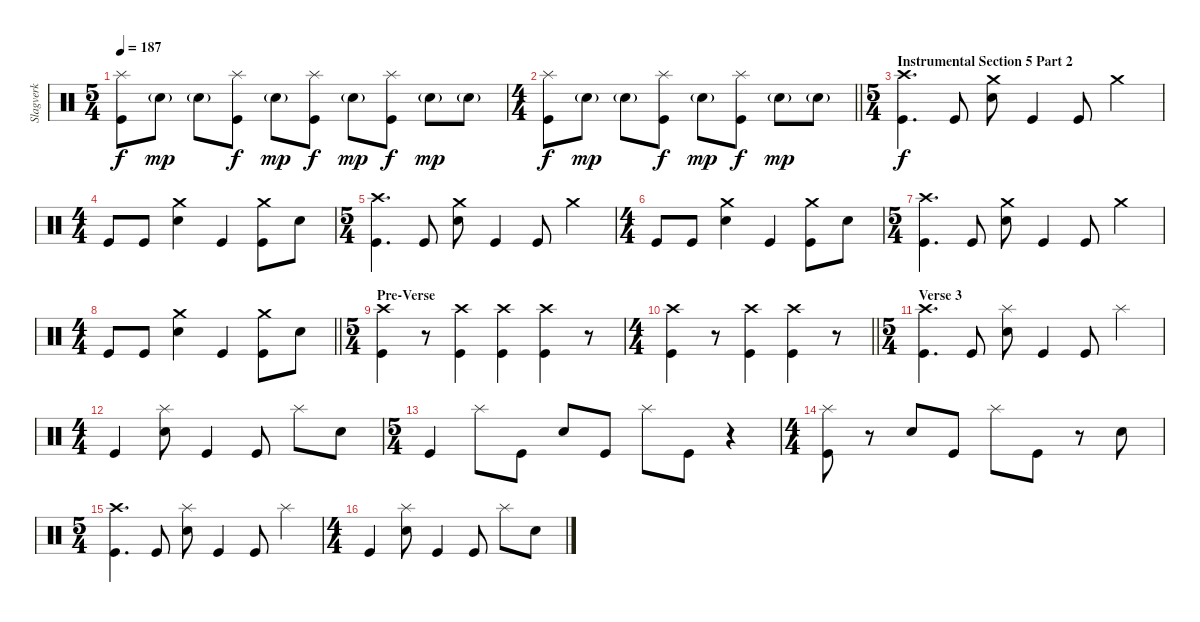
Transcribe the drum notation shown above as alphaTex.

\track ("Slagverk" "Slagverk") {instrument percussion}
\staff {score}
\articulation defaults
\ts (5 4)
\tempo 187
\clef neutral
\ks c
("Splash (hit)" "Kick (hit)").8{dy f} "Electric Snare (hit)"{g}.8{dy mp} "Electric Snare (hit)"{g}.8 ("Splash (hit)" "Kick (hit)").8{dy f} "Electric Snare (hit)"{g}.8{dy mp} ("Splash (hit)" "Kick (hit)").8{dy f} "Electric Snare (hit)"{g}.8{dy mp} ("Splash (hit)" "Kick (hit)").8{dy f} "Electric Snare (hit)"{g}.8{dy mp} "Electric Snare (hit)"{g}.8 |
\ts (4 4)
\barLineRight lightlight
("Splash (hit)" "Kick (hit)").8{dy f} "Electric Snare (hit)"{g}.8{dy mp} "Electric Snare (hit)"{g}.8 ("Splash (hit)" "Kick (hit)").8{dy f} "Electric Snare (hit)"{g}.8{dy mp} ("Splash (hit)" "Kick (hit)").8{dy f} "Electric Snare (hit)"{g}.8{dy mp} "Electric Snare (hit)"{g}.8 |
\ts (5 4)
\section ("" "Instrumental Section 5 Part 2")
("Crash high (hit)" "Kick (hit)").4{d dy f} "Kick (hit)".8 ("Crash medium (hit)" "Electric Snare (hit)").8 "Kick (hit)".4 "Kick (hit)".8 "Crash medium (hit)".4 |
\ts (4 4)
"Kick (hit)".8 "Kick (hit)".8 ("Crash medium (hit)" "Electric Snare (hit)").4 "Kick (hit)".4 ("Crash medium (hit)" "Kick (hit)").8 "Electric Snare (hit)".8 |
\ts (5 4)
("Crash high (hit)" "Kick (hit)").4{d} "Kick (hit)".8 ("Crash medium (hit)" "Electric Snare (hit)").8 "Kick (hit)".4 "Kick (hit)".8 "Crash medium (hit)".4 |
\ts (4 4)
"Kick (hit)".8 "Kick (hit)".8 ("Crash medium (hit)" "Electric Snare (hit)").4 "Kick (hit)".4 ("Crash medium (hit)" "Kick (hit)").8 "Electric Snare (hit)".8 |
\ts (5 4)
("Crash high (hit)" "Kick (hit)").4{d} "Kick (hit)".8 ("Crash medium (hit)" "Electric Snare (hit)").8 "Kick (hit)".4 "Kick (hit)".8 "Crash medium (hit)".4 |
\ts (4 4)
\barLineRight lightlight "Kick (hit)".8 "Kick (hit)".8
("Crash medium (hit)" "Electric Snare (hit)").4 "Kick (hit)".4 ("Crash medium (hit)" "Kick (hit)").8 "Electric Snare (hit)".8 |
\ts (5 4)
\section ("" "Pre-Verse")
("Crash high (hit)" "Kick (hit)").4 r.8 ("Crash high (hit)" "Kick (hit)").4 ("Crash high (hit)" "Kick (hit)").4 ("Crash high (hit)" "Kick (hit)").4 r.8 |
\ts (4 4)
\barLineRight lightlight
("Crash high (hit)" "Kick (hit)").4 r.8 ("Crash high (hit)" "Kick (hit)").4 ("Crash high (hit)" "Kick (hit)").4 r.8 |
\ts (5 4)
\section ("" "Verse 3")
("Crash high (hit)" "Kick (hit)").4{d} "Kick (hit)".8 ("Splash (hit)" "Electric Snare (hit)").8 "Kick (hit)".4 "Kick (hit)".8 "Splash (hit)".4 |
\ts (4 4)
"Kick (hit)".4 ("Splash (hit)" "Electric Snare (hit)").8 "Kick (hit)".4 "Kick (hit)".8 "Splash (hit)".8 "Electric Snare (hit)".8 |
\ts (5 4)
"Kick (hit)".4 "Splash (hit)".8 "Kick (hit)".8 "Electric Snare (hit)".8 "Kick (hit)".8 "Splash (hit)".8 "Kick (hit)".8 r.4 |
\ts (4 4)
("Splash (hit)" "Kick (hit)").8 r.8 "Electric Snare (hit)".8 "Kick (hit)".8 "Splash (hit)".8 "Kick (hit)".8 r.8 "Electric Snare (hit)".8 |
\ts (5 4)
("Crash high (hit)" "Kick (hit)").4{d} "Kick (hit)".8 ("Splash (hit)" "Electric Snare (hit)").8 "Kick (hit)".4 "Kick (hit)".8 "Splash (hit)".4 |
\ts (4 4)
"Kick (hit)".4 ("Splash (hit)" "Electric Snare (hit)").8 "Kick (hit)".4 "Kick (hit)".8 "Splash (hit)".8 "Electric Snare (hit)".8
